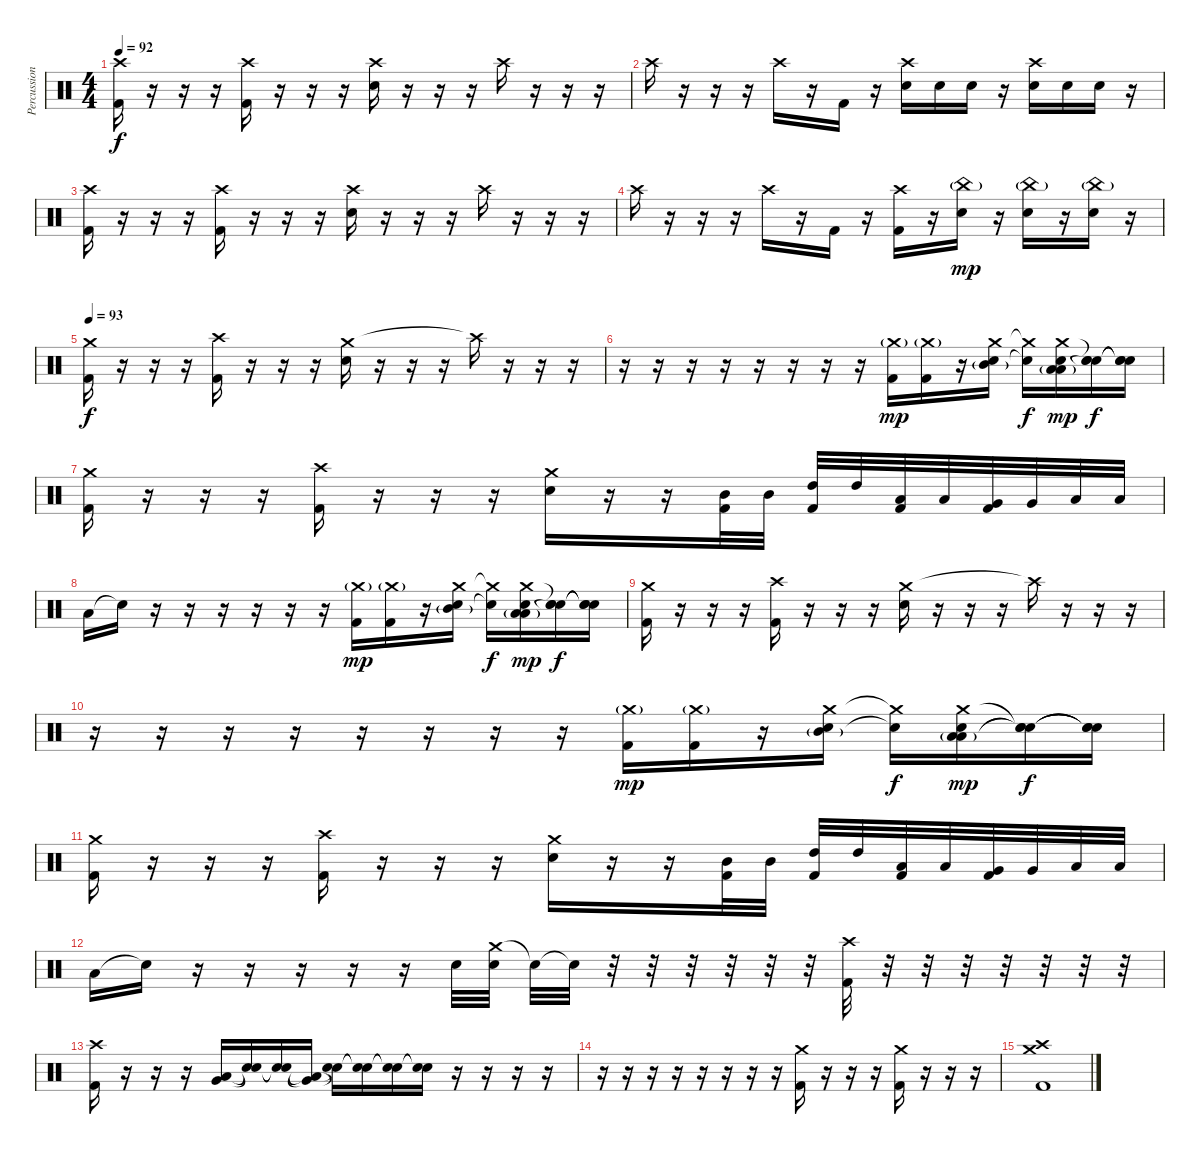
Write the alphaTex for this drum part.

\track ("Percussion" "Percussion") {instrument percussion}
\staff {score}
\articulation defaults
\ts (4 4)
\tempo 92
\clef neutral
\ks c
("Crash high (hit)" "Kick (hit) 2").16{dy f} r.16 r.16 r.16 ("Crash high (hit)" "Kick (hit) 2").16 r.16 r.16 r.16 ("Crash high (hit)" "Snare (hit) 2").16 r.16 r.16 r.16 "Crash high (hit)".16 r.16 r.16 r.16 |
"Crash high (hit)".16 r.16 r.16 r.16 "Crash high (hit)".16 r.16 "Kick (hit) 2".16 r.16 ("Crash high (hit)" "Snare (hit) 2").16 "Snare (hit) 2".16 "Snare (hit) 2".16 r.16 ("Crash high (hit)" "Snare (hit) 2").16 "Snare (hit) 2".16 "Snare (hit) 2".16 r.16 |
("Crash high (hit)" "Kick (hit) 2").16 r.16 r.16 r.16 ("Crash high (hit)" "Kick (hit) 2").16 r.16 r.16 r.16 ("Crash high (hit)" "Snare (hit) 2").16 r.16 r.16 r.16 "Crash high (hit)".16 r.16 r.16 r.16 |
"Crash high (hit)".16 r.16 r.16 r.16 "Crash high (hit)".16 r.16 "Kick (hit) 2".16 r.16 ("Crash high (hit)" "Kick (hit) 2").16 r.16 ("China (hit)"{g} "Snare (hit) 2").16{dy mp} r.16 ("China (hit)"{g} "Snare (hit) 2").16 r.16 ("China (hit)"{g} "Snare (hit) 2").16 r.16 |
\tempo 93
("Crash medium (hit)" "Kick (hit) 2").16{dy f} r.16 r.16 r.16 ("Crash high (hit)" "Kick (hit) 2").16 r.16 r.16 r.16 ("Crash medium (hit)" "Snare (hit) 2").16 r.16 r.16 r.16 "Crash high (hit)"{t}.16 r.16 r.16 r.16 |
r.16 r.16 r.16 r.16 r.16 r.16 r.16 r.16 ("Crash medium (hit)"{g} "Kick (hit) 2").16{dy mp} ("Crash medium (hit)"{g} "Kick (hit) 2").16 r.16 ("Crash medium (hit)" "Mid Tom (hit)"{g} "Snare (hit) 2").16 ("Crash medium (hit)"{t} "Snare (hit)"{t}).16{dy f} ("Crash medium (hit)" "Low Floor Tom (hit)"{g} "Low Tom (hit)"{g} "Snare (hit) 2").16{dy mp} ("Snare (hit)"{t} "Snare (hit)"{t} "Snare (hit)"{t}).16{dy f} ("Snare (hit)"{t} "Snare (hit)"{t} "Snare (hit)"{t}).16 |
("Crash medium (hit)" "Kick (hit) 2").16 r.16 r.16 r.16 ("Crash high (hit)" "Kick (hit) 2").16 r.16 r.16 r.16 ("Crash medium (hit)" "Snare (hit) 2").16 r.16 r.16 ("Mid Tom (hit)" "Kick (hit) 2").32 "Mid Tom (hit)".32 ("High Tom (hit)" "Kick (hit) 2").32 "High Tom (hit)".32 ("Low Tom (hit)" "Kick (hit) 2").32 "Low Tom (hit)".32 ("Very Low Tom (hit)" "Kick (hit) 2").32 "Very Low Tom (hit)".32 "Low Floor Tom (hit)".32 "Low Floor Tom (hit)".32 |
"Low Tom (hit)".16 "Snare (hit)"{t}.16 r.16 r.16 r.16 r.16 r.16 r.16 ("Crash medium (hit)"{g} "Kick (hit) 2").16{dy mp} ("Crash medium (hit)"{g} "Kick (hit) 2").16 r.16 ("Crash medium (hit)" "Mid Tom (hit)"{g} "Snare (hit) 2").16 ("Crash medium (hit)"{t} "Snare (hit)"{t}).16{dy f} ("Crash medium (hit)" "Low Floor Tom (hit)"{g} "Low Tom (hit)"{g} "Snare (hit) 2").16{dy mp} ("Snare (hit)"{t} "Snare (hit)"{t} "Snare (hit)"{t}).16{dy f} ("Snare (hit)"{t} "Snare (hit)"{t} "Snare (hit)"{t}).16 |
("Crash medium (hit)" "Kick (hit) 2").16 r.16 r.16 r.16 ("Crash high (hit)" "Kick (hit) 2").16 r.16 r.16 r.16 ("Crash medium (hit)" "Snare (hit) 2").16 r.16 r.16 r.16 "Crash high (hit)"{t}.16 r.16 r.16 r.16 |
r.16 r.16 r.16 r.16 r.16 r.16 r.16 r.16 ("Crash medium (hit)"{g} "Kick (hit) 2").16{dy mp} ("Crash medium (hit)"{g} "Kick (hit) 2").16 r.16 ("Crash medium (hit)" "Mid Tom (hit)"{g} "Snare (hit) 2").16 ("Crash medium (hit)"{t} "Snare (hit)"{t}).16{dy f} ("Crash medium (hit)" "Low Floor Tom (hit)"{g} "Low Tom (hit)"{g} "Snare (hit) 2").16{dy mp} ("Snare (hit)"{t} "Snare (hit)"{t} "Snare (hit)"{t}).16{dy f} ("Snare (hit)"{t} "Snare (hit)"{t} "Snare (hit)"{t}).16 |
("Crash medium (hit)" "Kick (hit) 2").16 r.16 r.16 r.16 ("Crash high (hit)" "Kick (hit) 2").16 r.16 r.16 r.16 ("Crash medium (hit)" "Snare (hit) 2").16 r.16 r.16 ("Mid Tom (hit)" "Kick (hit) 2").32 "Mid Tom (hit)".32 ("High Tom (hit)" "Kick (hit) 2").32 "High Tom (hit)".32 ("Low Tom (hit)" "Kick (hit) 2").32 "Low Tom (hit)".32 ("Very Low Tom (hit)" "Kick (hit) 2").32 "Very Low Tom (hit)".32 "Low Floor Tom (hit)".32 "Low Floor Tom (hit)".32 |
"Low Tom (hit)".16 "Snare (hit)"{t}.16 r.16 r.16 r.16 r.16 r.16 "Snare (hit) 2".32 ("Crash medium (hit)" "Snare (hit) 2").32 "Snare (hit)"{t}.32 "Snare (hit)"{t}.32 r.32 r.32 r.32 r.32 r.32 r.32 ("Crash high (hit)" "Kick (hit) 2").32 r.32 r.32 r.32 r.32 r.32 r.32 r.32 |
("Crash high (hit)" "Kick (hit) 2").16 r.16 r.16 r.16 ("Low Tom (hit)" "Very Low Tom (hit)").16 ("Snare (hit)"{t} "Snare (hit)"{t}).16 ("Snare (hit)"{t} "Snare (hit)"{t}).16 ("Low Tom (hit)"{t} "Very Low Tom (hit)"{t}).16 ("Snare (hit)"{t} "Snare (hit)"{t}).16 ("Snare (hit)"{t} "Snare (hit)"{t}).16 ("Snare (hit)"{t} "Snare (hit)"{t}).16 ("Snare (hit)"{t} "Snare (hit)"{t}).16 r.16 r.16 r.16 r.16 |
r.16 r.16 r.16 r.16 r.16 r.16 r.16 r.16 ("Crash medium (hit)" "Kick (hit) 2").16 r.16 r.16 r.16 ("Crash medium (hit)" "Kick (hit) 2").16 r.16 r.16 r.16 |
("Crash medium (hit)" "Crash high (hit)" "Kick (hit) 2").1
